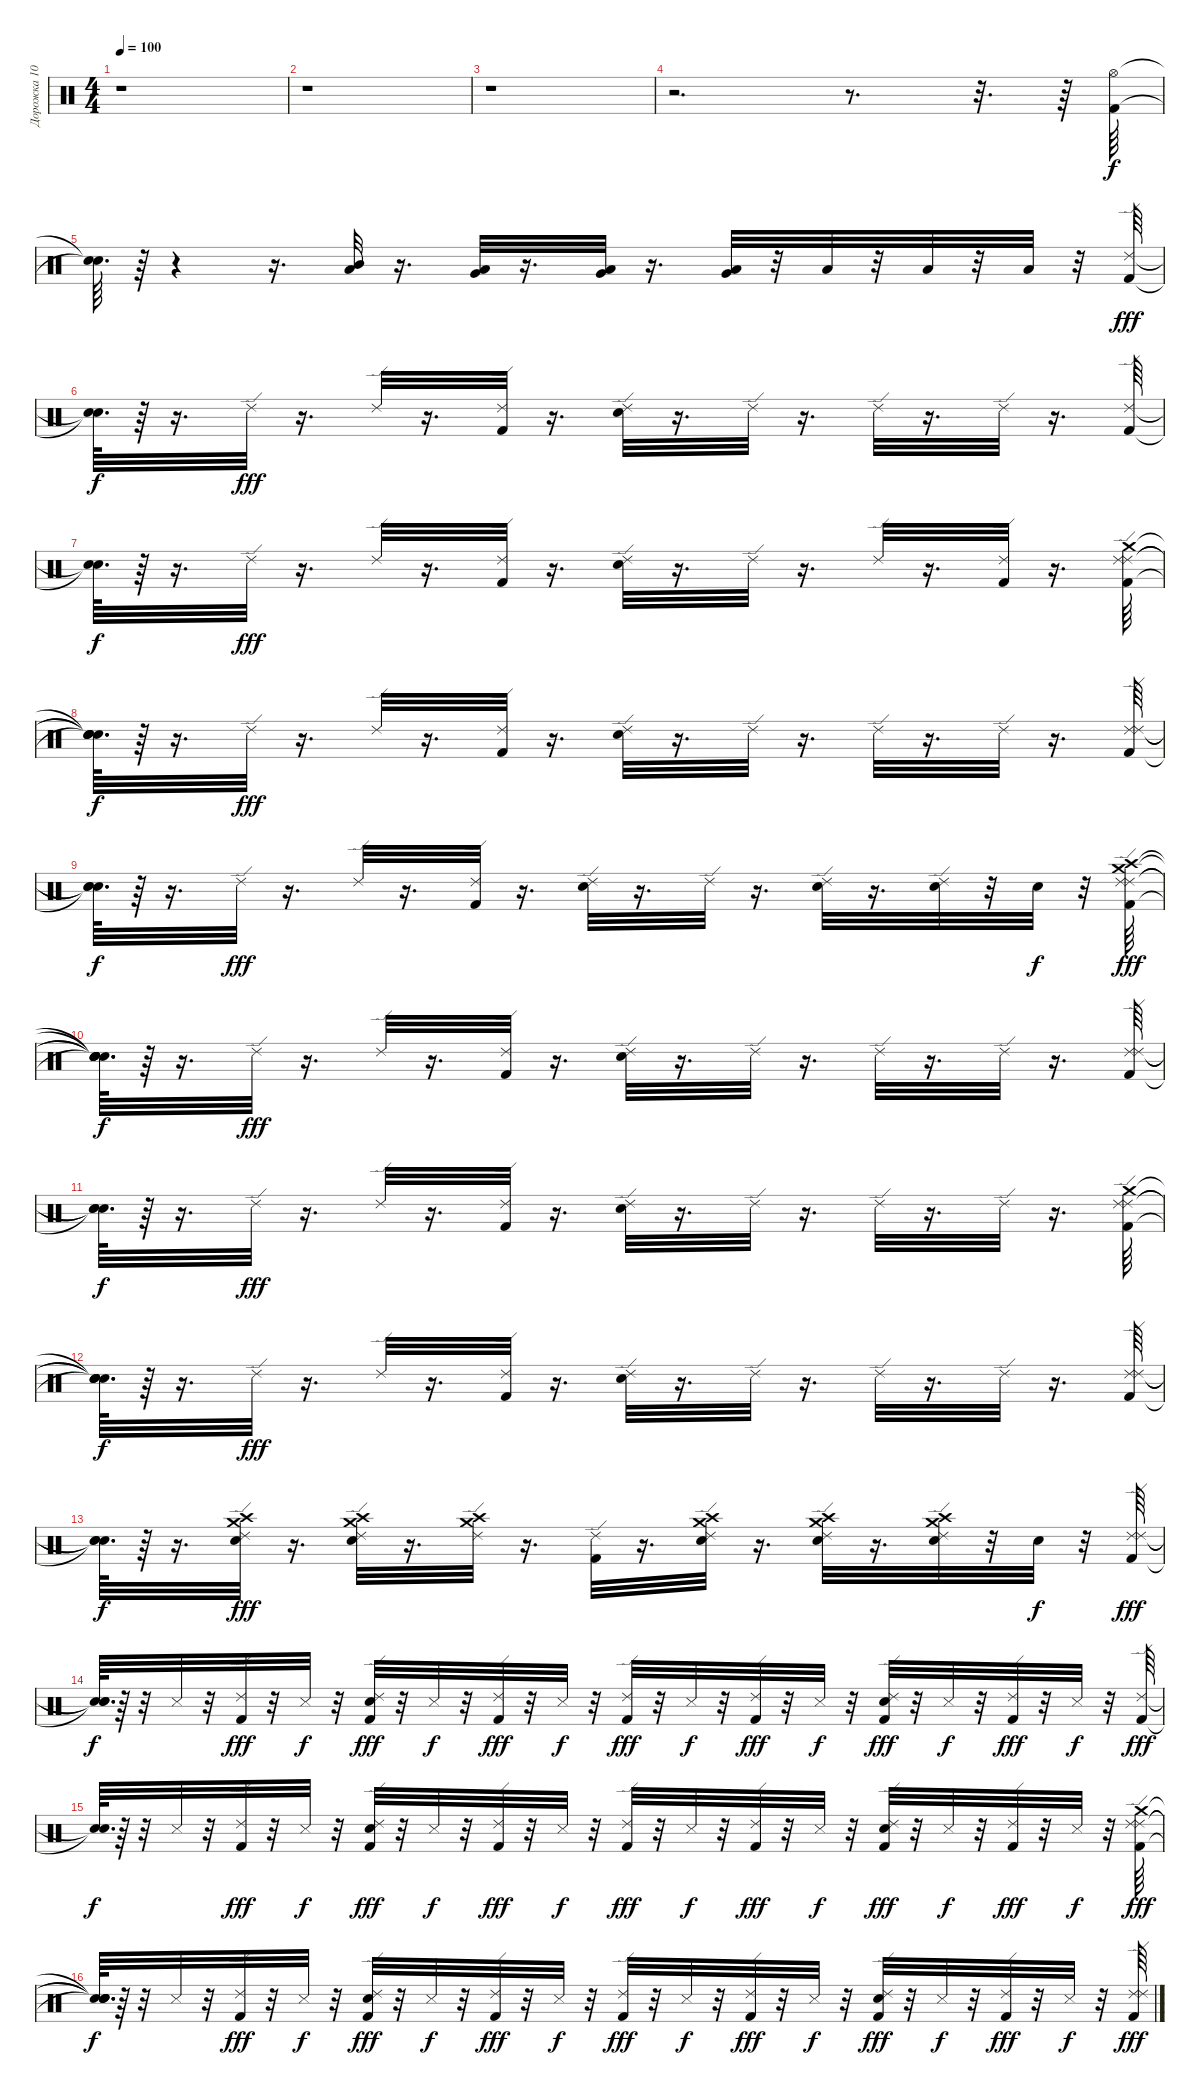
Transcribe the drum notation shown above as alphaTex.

\track ("Дорожка 10" "Дорожка 10") {instrument percussion}
\staff {score}
\articulation defaults
\ts (4 4)
\tempo 100
\clef neutral
\ks c
r.1{dy f} |
r.1 |
r.1 |
r.2{d} r.8{d} r.32{d} r.64 ("Hi-Hat (open)" "Kick (hit) 2").64 |
("Snare (hit)"{t} "Snare (hit)"{t}).64{d} r.64 r.4 r.16{d} ("Low Tom (hit)" "Mid Tom (hit)").32 r.16{d} ("Very Low Tom (hit)" "Low Tom (hit)").32 r.16{d} ("Low Floor Tom (hit)" "Very Low Tom (hit)").32 r.16{d} ("Very Low Tom (hit)" "Low Floor Tom (hit)").32 r.32 "Low Floor Tom (hit)".32 r.32 "Low Floor Tom (hit)".32 r.32 "Low Floor Tom (hit)".32 r.32 ("Kick (hit) 2" "Ride (edge) 2").64{dy fff} |
("Snare (hit)"{t} "Snare (hit)"{t}).64{d dy f} r.64 r.16{d} "Ride (edge) 2".32{dy fff} r.16{d} "Ride (edge) 2".32 r.16{d} ("Kick (hit) 2" "Ride (edge) 2").32 r.16{d} ("Snare (hit) 2" "Ride (edge) 2").32 r.16{d} "Ride (edge) 2".32 r.16{d} "Ride (edge) 2".32 r.16{d} "Ride (edge) 2".32 r.16{d} ("Kick (hit) 2" "Ride (edge) 2").64 |
("Snare (hit)"{t} "Snare (hit)"{t}).64{d dy f} r.64 r.16{d} "Ride (edge) 2".32{dy fff} r.16{d} "Ride (edge) 2".32 r.16{d} ("Kick (hit) 2" "Ride (edge) 2").32 r.16{d} ("Snare (hit) 2" "Ride (edge) 2").32 r.16{d} "Ride (edge) 2".32 r.16{d} "Ride (edge) 2".32 r.16{d} ("Kick (hit) 2" "Ride (edge) 2").32 r.16{d} ("Ride (edge) 2" "Crash medium (hit)" "Kick (hit) 2" "Ride (edge) 2").64 |
("Snare (hit)"{t} "Snare (hit)"{t} "Snare (hit)"{t} "Snare (hit)"{t}).64{d dy f} r.64 r.16{d} "Ride (edge) 2".32{dy fff} r.16{d} "Ride (edge) 2".32 r.16{d} ("Kick (hit) 2" "Ride (edge) 2").32 r.16{d} ("Snare (hit) 2" "Ride (edge) 2").32 r.16{d} "Ride (edge) 2".32 r.16{d} "Ride (edge) 2".32 r.16{d} "Ride (edge) 2".32 r.16{d} ("Ride (edge) 2" "Kick (hit) 2" "Ride (edge) 2").64 |
("Snare (hit)"{t} "Snare (hit)"{t} "Snare (hit)"{t}).64{d dy f} r.64 r.16{d} "Ride (edge) 2".32{dy fff} r.16{d} "Ride (edge) 2".32 r.16{d} ("Kick (hit) 2" "Ride (edge) 2").32 r.16{d} ("Snare (hit) 2" "Ride (edge) 2").32 r.16{d} "Ride (edge) 2".32 r.16{d} ("Snare (hit) 2" "Ride (edge) 2").32 r.16{d} ("Snare (hit) 2" "Ride (edge) 2").32 r.32 "Snare (hit) 2".32{dy f} r.32 ("Ride (edge) 2" "Crash high (hit)" "Crash medium (hit)" "Kick (hit) 2" "Ride (edge) 2").64{dy fff} |
("Snare (hit)"{t} "Snare (hit)"{t} "Snare (hit)"{t} "Snare (hit)"{t} "Snare (hit)"{t}).64{d dy f} r.64 r.16{d} "Ride (edge) 2".32{dy fff} r.16{d} "Ride (edge) 2".32 r.16{d} ("Kick (hit) 2" "Ride (edge) 2").32 r.16{d} ("Snare (hit) 2" "Ride (edge) 2").32 r.16{d} "Ride (edge) 2".32 r.16{d} "Ride (edge) 2".32 r.16{d} "Ride (edge) 2".32 r.16{d} ("Ride (edge) 2" "Kick (hit) 2" "Ride (edge) 2").64 |
("Snare (hit)"{t} "Snare (hit)"{t} "Snare (hit)"{t}).64{d dy f} r.64 r.16{d} "Ride (edge) 2".32{dy fff} r.16{d} "Ride (edge) 2".32 r.16{d} ("Kick (hit) 2" "Ride (edge) 2").32 r.16{d} ("Snare (hit) 2" "Ride (edge) 2").32 r.16{d} "Ride (edge) 2".32 r.16{d} "Ride (edge) 2".32 r.16{d} "Ride (edge) 2".32 r.16{d} ("Ride (edge) 2" "Crash medium (hit)" "Kick (hit) 2" "Ride (edge) 2").64 |
("Snare (hit)"{t} "Snare (hit)"{t} "Snare (hit)"{t} "Snare (hit)"{t}).64{d dy f} r.64 r.16{d} "Ride (edge) 2".32{dy fff} r.16{d} "Ride (edge) 2".32 r.16{d} ("Kick (hit) 2" "Ride (edge) 2").32 r.16{d} ("Snare (hit) 2" "Ride (edge) 2").32 r.16{d} "Ride (edge) 2".32 r.16{d} "Ride (edge) 2".32 r.16{d} "Ride (edge) 2".32 r.16{d} ("Ride (edge) 2" "Kick (hit) 2" "Ride (edge) 2").64 |
("Snare (hit)"{t} "Snare (hit)"{t} "Snare (hit)"{t}).64{d dy f} r.64 r.16{d} ("Crash medium (hit)" "Crash high (hit)" "Snare (hit) 2" "Ride (edge) 2").32{dy fff} r.16{d} ("Crash high (hit)" "Crash medium (hit)" "Snare (hit) 2" "Ride (edge) 2").32 r.16{d} ("Crash medium (hit)" "Crash high (hit)" "Ride (edge) 2").32 r.16{d} ("Kick (hit) 2" "Ride (edge) 2").32 r.16{d} ("Crash medium (hit)" "Crash high (hit)" "Snare (hit) 2" "Ride (edge) 2").32 r.16{d} ("Crash medium (hit)" "Crash high (hit)" "Snare (hit) 2" "Ride (edge) 2").32 r.16{d} ("Snare (hit) 2" "Crash medium (hit)" "Crash high (hit)" "Ride (edge) 2").32 r.32 "Snare (hit) 2".32{dy f} r.32 ("Ride (edge) 2" "Kick (hit) 2" "Ride (edge) 2").64{dy fff} |
("Snare (hit)"{t} "Snare (hit)"{t} "Snare (hit)"{t}).64{d dy f} r.64 r.32 "Metronome (hit)".32 r.32 ("Kick (hit) 2" "Ride (edge) 2").32{dy fff} r.32 "Metronome (hit)".32{dy f} r.32 ("Kick (hit) 2" "Snare (hit) 2" "Ride (edge) 2").32{dy fff} r.32 "Metronome (hit)".32{dy f} r.32 ("Kick (hit) 2" "Ride (edge) 2").32{dy fff} r.32 "Metronome (hit)".32{dy f} r.32 ("Kick (hit) 2" "Ride (edge) 2").32{dy fff} r.32 "Metronome (hit)".32{dy f} r.32 ("Kick (hit) 2" "Ride (edge) 2").32{dy fff} r.32 "Metronome (hit)".32{dy f} r.32 ("Kick (hit) 2" "Snare (hit) 2" "Ride (edge) 2").32{dy fff} r.32 "Metronome (hit)".32{dy f} r.32 ("Kick (hit) 2" "Ride (edge) 2").32{dy fff} r.32 "Metronome (hit)".32{dy f} r.32 ("Kick (hit) 2" "Ride (edge) 2").64{dy fff} |
("Snare (hit)"{t} "Snare (hit)"{t}).64{d dy f} r.64 r.32 "Metronome (hit)".32 r.32 ("Kick (hit) 2" "Ride (edge) 2").32{dy fff} r.32 "Metronome (hit)".32{dy f} r.32 ("Kick (hit) 2" "Snare (hit) 2" "Ride (edge) 2").32{dy fff} r.32 "Metronome (hit)".32{dy f} r.32 ("Kick (hit) 2" "Ride (edge) 2").32{dy fff} r.32 "Metronome (hit)".32{dy f} r.32 ("Kick (hit) 2" "Ride (edge) 2").32{dy fff} r.32 "Metronome (hit)".32{dy f} r.32 ("Kick (hit) 2" "Ride (edge) 2").32{dy fff} r.32 "Metronome (hit)".32{dy f} r.32 ("Kick (hit) 2" "Snare (hit) 2" "Ride (edge) 2").32{dy fff} r.32 "Metronome (hit)".32{dy f} r.32 ("Kick (hit) 2" "Ride (edge) 2").32{dy fff} r.32 "Metronome (hit)".32{dy f} r.32 ("Ride (edge) 2" "Crash medium (hit)" "Kick (hit) 2" "Ride (edge) 2").64{dy fff} |
("Snare (hit)"{t} "Snare (hit)"{t} "Snare (hit)"{t} "Snare (hit)"{t}).64{d dy f} r.64 r.32 "Metronome (hit)".32 r.32 ("Kick (hit) 2" "Ride (edge) 2").32{dy fff} r.32 "Metronome (hit)".32{dy f} r.32 ("Kick (hit) 2" "Snare (hit) 2" "Ride (edge) 2").32{dy fff} r.32 "Metronome (hit)".32{dy f} r.32 ("Kick (hit) 2" "Ride (edge) 2").32{dy fff} r.32 "Metronome (hit)".32{dy f} r.32 ("Kick (hit) 2" "Ride (edge) 2").32{dy fff} r.32 "Metronome (hit)".32{dy f} r.32 ("Kick (hit) 2" "Ride (edge) 2").32{dy fff} r.32 "Metronome (hit)".32{dy f} r.32 ("Kick (hit) 2" "Snare (hit) 2" "Ride (edge) 2").32{dy fff} r.32 "Metronome (hit)".32{dy f} r.32 ("Kick (hit) 2" "Ride (edge) 2").32{dy fff} r.32 "Metronome (hit)".32{dy f} r.32 ("Ride (edge) 2" "Kick (hit) 2" "Ride (edge) 2").64{dy fff}
